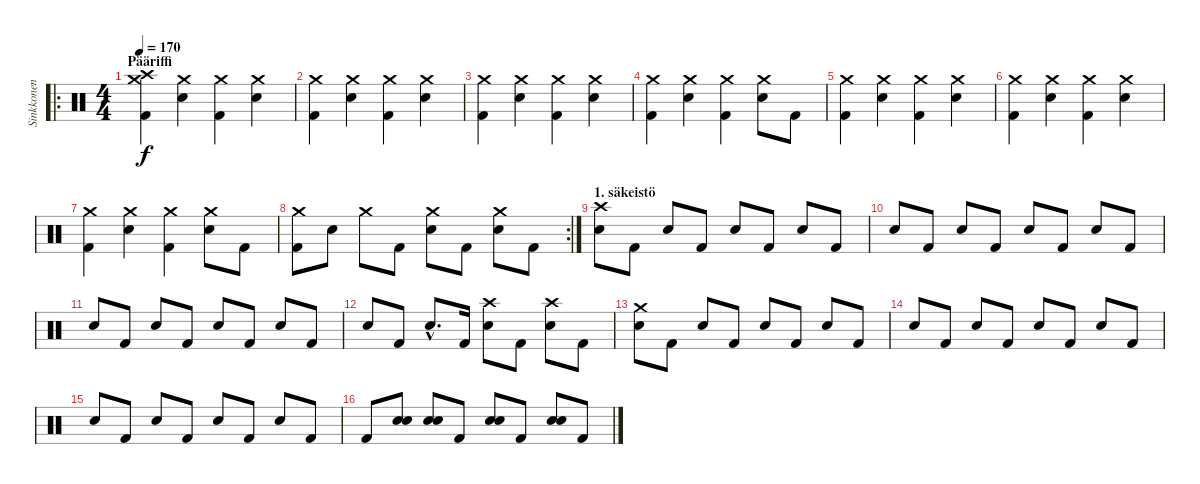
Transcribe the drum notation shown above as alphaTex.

\track ("Sinkkonen" "Sinkkonen") {instrument percussion}
\staff {score}
\articulation defaults
\ro
\ts (4 4)
\section ("" "Pääriffi")
\tempo 170
\clef neutral
\ks c
("Crash medium (hit)" "Crash high (hit)" "Kick (hit) 2").4{dy f} ("Crash medium (hit)" "Electric Snare (hit)").4 ("Crash medium (hit)" "Kick (hit) 2").4 ("Crash medium (hit)" "Electric Snare (hit)").4 |
("Crash medium (hit)" "Kick (hit) 2").4 ("Crash medium (hit)" "Electric Snare (hit)").4 ("Crash medium (hit)" "Kick (hit) 2").4 ("Crash medium (hit)" "Electric Snare (hit)").4 |
("Crash medium (hit)" "Kick (hit) 2").4 ("Crash medium (hit)" "Electric Snare (hit)").4 ("Crash medium (hit)" "Kick (hit) 2").4 ("Crash medium (hit)" "Electric Snare (hit)").4 |
("Crash medium (hit)" "Kick (hit) 2").4 ("Crash medium (hit)" "Electric Snare (hit)").4 ("Crash medium (hit)" "Kick (hit) 2").4 ("Crash medium (hit)" "Electric Snare (hit)").8 "Kick (hit) 2".8 |
("Crash medium (hit)" "Kick (hit) 2").4 ("Crash medium (hit)" "Electric Snare (hit)").4 ("Crash medium (hit)" "Kick (hit) 2").4 ("Crash medium (hit)" "Electric Snare (hit)").4 |
("Crash medium (hit)" "Kick (hit) 2").4 ("Crash medium (hit)" "Electric Snare (hit)").4 ("Crash medium (hit)" "Kick (hit) 2").4 ("Crash medium (hit)" "Electric Snare (hit)").4 |
("Crash medium (hit)" "Kick (hit) 2").4 ("Crash medium (hit)" "Electric Snare (hit)").4 ("Crash medium (hit)" "Kick (hit) 2").4 ("Crash medium (hit)" "Electric Snare (hit)").8 "Kick (hit) 2".8 |
\rc 2
("Crash medium (hit)" "Kick (hit) 2").8 "Electric Snare (hit)".8 "Crash medium (hit)".8 "Kick (hit) 2".8 ("Crash medium (hit)" "Electric Snare (hit)").8 "Kick (hit) 2".8 ("Crash medium (hit)" "Electric Snare (hit)").8 "Kick (hit) 2".8 |
\section ("" "1. säkeistö")
("Crash high (hit)" "Electric Snare (hit)").8 "Kick (hit) 2".8 "Electric Snare (hit)".8 "Kick (hit) 2".8 "Electric Snare (hit)".8 "Kick (hit) 2".8 "Electric Snare (hit)".8 "Kick (hit) 2".8 |
"Electric Snare (hit)".8 "Kick (hit) 2".8 "Electric Snare (hit)".8 "Kick (hit) 2".8 "Electric Snare (hit)".8 "Kick (hit) 2".8 "Electric Snare (hit)".8 "Kick (hit) 2".8 |
"Electric Snare (hit)".8 "Kick (hit) 2".8 "Electric Snare (hit)".8 "Kick (hit) 2".8 "Electric Snare (hit)".8 "Kick (hit) 2".8 "Electric Snare (hit)".8 "Kick (hit) 2".8 |
"Electric Snare (hit)".8 "Kick (hit) 2".8 "Electric Snare (hit)"{hac}.8{d} "Kick (hit) 2".16 ("Crash high (hit)" "Electric Snare (hit)").8 "Kick (hit) 2".8 ("Crash high (hit)" "Electric Snare (hit)").8 "Kick (hit) 2".8 |
("Crash medium (hit)" "Electric Snare (hit)").8 "Kick (hit) 2".8 "Electric Snare (hit)".8 "Kick (hit) 2".8 "Electric Snare (hit)".8 "Kick (hit) 2".8 "Electric Snare (hit)".8 "Kick (hit) 2".8 |
"Electric Snare (hit)".8 "Kick (hit) 2".8 "Electric Snare (hit)".8 "Kick (hit) 2".8 "Electric Snare (hit)".8 "Kick (hit) 2".8 "Electric Snare (hit)".8 "Kick (hit) 2".8 |
"Electric Snare (hit)".8 "Kick (hit) 2".8 "Electric Snare (hit)".8 "Kick (hit) 2".8 "Electric Snare (hit)".8 "Kick (hit) 2".8 "Electric Snare (hit)".8 "Kick (hit) 2".8 |
"Kick (hit) 2".8 ("Electric Snare (hit)" "Snare (hit) 2").8 ("Electric Snare (hit)" "Snare (hit) 2").8 "Kick (hit) 2".8 ("Electric Snare (hit)" "Snare (hit) 2").8 "Kick (hit) 2".8 ("Electric Snare (hit)" "Snare (hit) 2").8 "Kick (hit) 2".8
